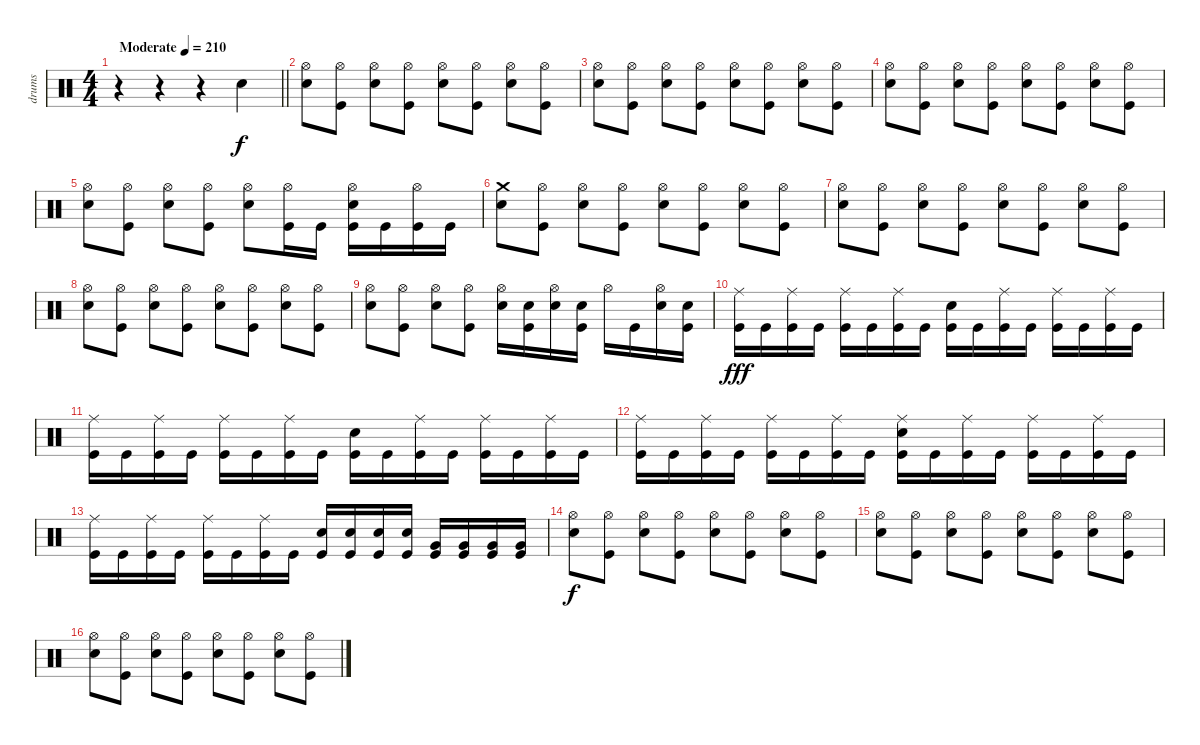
\track ("drums" "drums") {instrument percussion}
\staff {score}
\articulation defaults
\ts (4 4)
\tempo (210 "Moderate")
\clef neutral
\barLineRight lightlight
\ks c
r.4{dy f} r.4 r.4 "Snare (hit) 2".4 |
("Hi-Hat (open)" "Electric Snare (hit)").8 ("Hi-Hat (open)" "Kick (hit)").8 ("Hi-Hat (open)" "Electric Snare (hit)").8 ("Hi-Hat (open)" "Kick (hit)").8 ("Hi-Hat (open)" "Electric Snare (hit)").8 ("Hi-Hat (open)" "Kick (hit)").8 ("Hi-Hat (open)" "Electric Snare (hit)").8 ("Hi-Hat (open)" "Kick (hit)").8 |
("Hi-Hat (open)" "Electric Snare (hit)").8 ("Hi-Hat (open)" "Kick (hit)").8 ("Hi-Hat (open)" "Electric Snare (hit)").8 ("Hi-Hat (open)" "Kick (hit)").8 ("Hi-Hat (open)" "Electric Snare (hit)").8 ("Hi-Hat (open)" "Kick (hit)").8 ("Hi-Hat (open)" "Electric Snare (hit)").8 ("Hi-Hat (open)" "Kick (hit)").8 |
("Hi-Hat (open)" "Electric Snare (hit)").8 ("Hi-Hat (open)" "Kick (hit)").8 ("Hi-Hat (open)" "Electric Snare (hit)").8 ("Hi-Hat (open)" "Kick (hit)").8 ("Hi-Hat (open)" "Electric Snare (hit)").8 ("Hi-Hat (open)" "Kick (hit)").8 ("Hi-Hat (open)" "Electric Snare (hit)").8 ("Hi-Hat (open)" "Kick (hit)").8 |
("Hi-Hat (open)" "Electric Snare (hit)").8 ("Hi-Hat (open)" "Kick (hit)").8 ("Hi-Hat (open)" "Electric Snare (hit)").8 ("Hi-Hat (open)" "Kick (hit)").8 ("Hi-Hat (open)" "Electric Snare (hit)").8 ("Hi-Hat (open)" "Kick (hit)").16 "Kick (hit)".16 ("Hi-Hat (open)" "Electric Snare (hit)" "Kick (hit)").16 "Kick (hit)".16 ("Hi-Hat (open)" "Kick (hit)").16 "Kick (hit)".16 |
("Crash medium (hit)" "Electric Snare (hit)").8 ("Hi-Hat (open)" "Kick (hit)").8 ("Hi-Hat (open)" "Electric Snare (hit)").8 ("Hi-Hat (open)" "Kick (hit)").8 ("Hi-Hat (open)" "Electric Snare (hit)").8 ("Hi-Hat (open)" "Kick (hit)").8 ("Hi-Hat (open)" "Electric Snare (hit)").8 ("Hi-Hat (open)" "Kick (hit)").8 |
("Hi-Hat (open)" "Electric Snare (hit)").8 ("Hi-Hat (open)" "Kick (hit)").8 ("Hi-Hat (open)" "Electric Snare (hit)").8 ("Hi-Hat (open)" "Kick (hit)").8 ("Hi-Hat (open)" "Electric Snare (hit)").8 ("Hi-Hat (open)" "Kick (hit)").8 ("Hi-Hat (open)" "Electric Snare (hit)").8 ("Hi-Hat (open)" "Kick (hit)").8 |
("Hi-Hat (open)" "Electric Snare (hit)").8 ("Hi-Hat (open)" "Kick (hit)").8 ("Hi-Hat (open)" "Electric Snare (hit)").8 ("Hi-Hat (open)" "Kick (hit)").8 ("Hi-Hat (open)" "Electric Snare (hit)").8 ("Hi-Hat (open)" "Kick (hit)").8 ("Hi-Hat (open)" "Electric Snare (hit)").8 ("Hi-Hat (open)" "Kick (hit)").8 |
("Hi-Hat (open)" "Electric Snare (hit)").8 ("Hi-Hat (open)" "Kick (hit)").8 ("Hi-Hat (open)" "Electric Snare (hit)").8 ("Hi-Hat (open)" "Kick (hit)").8 ("Hi-Hat (open)" "Electric Snare (hit)").16 ("Electric Snare (hit)" "Kick (hit)").16 ("Hi-Hat (open)" "Electric Snare (hit)").16 ("Electric Snare (hit)" "Kick (hit)").16 "Hi-Hat (open)".16 "Kick (hit)".16 ("Hi-Hat (open)" "Electric Snare (hit)").16 ("Electric Snare (hit)" "Kick (hit)").16 |
("Ride (middle)" "Kick (hit)").16{dy fff} "Kick (hit)".16 ("Ride (middle)" "Kick (hit)").16 "Kick (hit)".16 ("Ride (middle)" "Kick (hit)").16 "Kick (hit)".16 ("Ride (middle)" "Kick (hit)").16 "Kick (hit)".16 ("Electric Snare (hit)" "Kick (hit)").16 "Kick (hit)".16 ("Ride (middle)" "Kick (hit)").16 "Kick (hit)".16 ("Ride (middle)" "Kick (hit)").16 "Kick (hit)".16 ("Ride (middle)" "Kick (hit)").16 "Kick (hit)".16 |
("Ride (middle)" "Kick (hit)").16 "Kick (hit)".16 ("Ride (middle)" "Kick (hit)").16 "Kick (hit)".16 ("Ride (middle)" "Kick (hit)").16 "Kick (hit)".16 ("Ride (middle)" "Kick (hit)").16 "Kick (hit)".16 ("Electric Snare (hit)" "Kick (hit)").16 "Kick (hit)".16 ("Ride (middle)" "Kick (hit)").16 "Kick (hit)".16 ("Ride (middle)" "Kick (hit)").16 "Kick (hit)".16 ("Ride (middle)" "Kick (hit)").16 "Kick (hit)".16 |
("Ride (middle)" "Kick (hit)").16 "Kick (hit)".16 ("Ride (middle)" "Kick (hit)").16 "Kick (hit)".16 ("Ride (middle)" "Kick (hit)").16 "Kick (hit)".16 ("Ride (middle)" "Kick (hit)").16 "Kick (hit)".16 ("Ride (middle)" "Electric Snare (hit)" "Kick (hit)").16 "Kick (hit)".16 ("Ride (middle)" "Kick (hit)").16 "Kick (hit)".16 ("Ride (middle)" "Kick (hit)").16 "Kick (hit)".16 ("Ride (middle)" "Kick (hit)").16 "Kick (hit)".16 |
("Ride (middle)" "Kick (hit)").16 "Kick (hit)".16 ("Ride (middle)" "Kick (hit)").16 "Kick (hit)".16 ("Ride (middle)" "Kick (hit)").16 "Kick (hit)".16 ("Ride (middle)" "Kick (hit)").16 "Kick (hit)".16 ("Electric Snare (hit)" "Kick (hit)").16 ("Electric Snare (hit)" "Kick (hit)").16 ("Electric Snare (hit)" "Kick (hit)").16 ("Electric Snare (hit)" "Kick (hit)").16 ("Very Low Tom (hit)" "Kick (hit)").16 ("Very Low Tom (hit)" "Kick (hit)").16 ("Very Low Tom (hit)" "Kick (hit)").16 ("Very Low Tom (hit)" "Kick (hit)").16 |
("Hi-Hat (open)" "Electric Snare (hit)").8{dy f} ("Hi-Hat (open)" "Kick (hit)").8 ("Hi-Hat (open)" "Electric Snare (hit)").8 ("Hi-Hat (open)" "Kick (hit)").8 ("Hi-Hat (open)" "Electric Snare (hit)").8 ("Hi-Hat (open)" "Kick (hit)").8 ("Hi-Hat (open)" "Electric Snare (hit)").8 ("Hi-Hat (open)" "Kick (hit)").8 |
("Hi-Hat (open)" "Electric Snare (hit)").8 ("Hi-Hat (open)" "Kick (hit)").8 ("Hi-Hat (open)" "Electric Snare (hit)").8 ("Hi-Hat (open)" "Kick (hit)").8 ("Hi-Hat (open)" "Electric Snare (hit)").8 ("Hi-Hat (open)" "Kick (hit)").8 ("Hi-Hat (open)" "Electric Snare (hit)").8 ("Hi-Hat (open)" "Kick (hit)").8 |
("Hi-Hat (open)" "Electric Snare (hit)").8 ("Hi-Hat (open)" "Kick (hit)").8 ("Hi-Hat (open)" "Electric Snare (hit)").8 ("Hi-Hat (open)" "Kick (hit)").8 ("Hi-Hat (open)" "Electric Snare (hit)").8 ("Hi-Hat (open)" "Kick (hit)").8 ("Hi-Hat (open)" "Electric Snare (hit)").8 ("Hi-Hat (open)" "Kick (hit)").8
